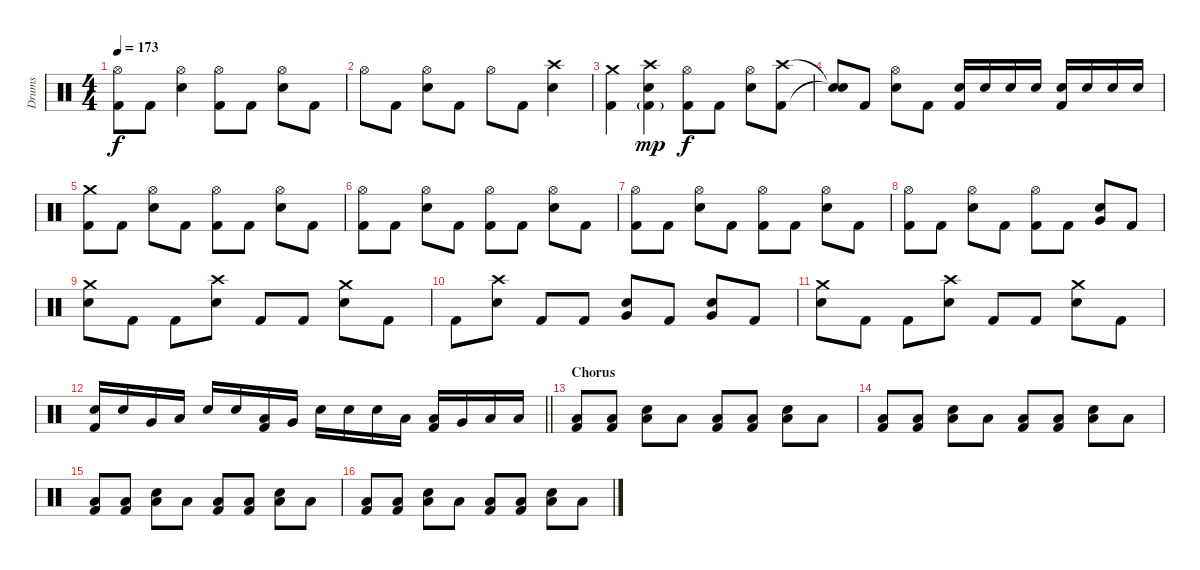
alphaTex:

\track ("Drums" "Drums") {instrument percussion}
\staff {score}
\articulation defaults
\ts (4 4)
\tempo 173
\clef neutral
\ks c
("Hi-Hat (open)" "Kick (hit) 2").8{dy f} "Kick (hit) 2".8 ("Hi-Hat (open)" "Electric Snare (hit)").4 ("Hi-Hat (open)" "Kick (hit) 2").8 "Kick (hit) 2".8 ("Hi-Hat (open)" "Electric Snare (hit)").8 "Kick (hit) 2".8 |
"Hi-Hat (open)".8 "Kick (hit) 2".8 ("Hi-Hat (open)" "Electric Snare (hit)").8 "Kick (hit) 2".8 "Hi-Hat (open)".8 "Kick (hit) 2".8 ("Crash high (hit)" "Electric Snare (hit)").4 |
("Crash medium (hit)" "Kick (hit) 2").4 ("Crash high (hit)" "Electric Snare (hit)" "Kick (hit) 2"{g}).4{dy mp} ("Hi-Hat (open)" "Kick (hit) 2").8{dy f} "Kick (hit) 2".8 ("Hi-Hat (open)" "Electric Snare (hit)").8 ("Crash high (hit)" "Kick (hit) 2").8 |
("Snare (hit)"{t} "Snare (hit)"{t}).8 "Kick (hit) 2".8 ("Hi-Hat (open)" "Electric Snare (hit)").8 "Kick (hit) 2".8 ("Electric Snare (hit)" "Kick (hit) 2").16 "Electric Snare (hit)".16 "Electric Snare (hit)".16 "Electric Snare (hit)".16 ("Electric Snare (hit)" "Kick (hit) 2").16 "Electric Snare (hit)".16 "Electric Snare (hit)".16 "Electric Snare (hit)".16 |
("Crash medium (hit)" "Kick (hit) 2").8 "Kick (hit) 2".8 ("Hi-Hat (open)" "Electric Snare (hit)").8 "Kick (hit) 2".8 ("Hi-Hat (open)" "Kick (hit) 2").8 "Kick (hit) 2".8 ("Hi-Hat (open)" "Electric Snare (hit)").8 "Kick (hit) 2".8 |
("Hi-Hat (open)" "Kick (hit) 2").8 "Kick (hit) 2".8 ("Hi-Hat (open)" "Electric Snare (hit)").8 "Kick (hit) 2".8 ("Hi-Hat (open)" "Kick (hit) 2").8 "Kick (hit) 2".8 ("Hi-Hat (open)" "Electric Snare (hit)").8 "Kick (hit) 2".8 |
("Hi-Hat (open)" "Kick (hit) 2").8 "Kick (hit) 2".8 ("Hi-Hat (open)" "Electric Snare (hit)").8 "Kick (hit) 2".8 ("Hi-Hat (open)" "Kick (hit) 2").8 "Kick (hit) 2".8 ("Hi-Hat (open)" "Electric Snare (hit)").8 "Kick (hit) 2".8 |
("Hi-Hat (open)" "Kick (hit) 2").8 "Kick (hit) 2".8 ("Hi-Hat (open)" "Electric Snare (hit)").8 "Kick (hit) 2".8 ("Hi-Hat (open)" "Kick (hit) 2").8 "Kick (hit) 2".8 ("Very Low Tom (hit)" "Electric Snare (hit)").8 "Kick (hit) 2".8 |
("Crash medium (hit)" "Electric Snare (hit)").8 "Kick (hit) 2".8 "Kick (hit) 2".8 ("Crash high (hit)" "Electric Snare (hit)").8 "Kick (hit) 2".8 "Kick (hit) 2".8 ("Crash medium (hit)" "Electric Snare (hit)").8 "Kick (hit) 2".8 |
"Kick (hit) 2".8 ("Crash high (hit)" "Electric Snare (hit)").8 "Kick (hit) 2".8 "Kick (hit) 2".8 ("Very Low Tom (hit)" "Electric Snare (hit)").8 "Kick (hit) 2".8 ("Very Low Tom (hit)" "Electric Snare (hit)").8 "Kick (hit) 2".8 |
("Crash medium (hit)" "Electric Snare (hit)").8 "Kick (hit) 2".8 "Kick (hit) 2".8 ("Crash high (hit)" "Electric Snare (hit)").8 "Kick (hit) 2".8 "Kick (hit) 2".8 ("Crash medium (hit)" "Electric Snare (hit)").8 "Kick (hit) 2".8 |
\barLineRight lightlight
("Electric Snare (hit)" "Kick (hit) 2").16 "Electric Snare (hit)".16 "Very Low Tom (hit)".16 "Low Floor Tom (hit)".16 "Electric Snare (hit)".16 "Electric Snare (hit)".16 ("Low Tom (hit)" "Kick (hit) 2").16 "Very Low Tom (hit)".16 "Electric Snare (hit)".16 "Electric Snare (hit)".16 "Electric Snare (hit)".16 "Low Tom (hit)".16 ("Low Tom (hit)" "Kick (hit) 2").16 "Very Low Tom (hit)".16 "Low Floor Tom (hit)".16 "Low Floor Tom (hit)".16 |
\section ("" "Chorus")
("Low Floor Tom (hit)" "Kick (hit) 2").8 ("Low Floor Tom (hit)" "Kick (hit) 2").8 ("Low Floor Tom (hit)" "Electric Snare (hit)").8 "Low Floor Tom (hit)".8 ("Low Floor Tom (hit)" "Kick (hit) 2").8 ("Low Floor Tom (hit)" "Kick (hit) 2").8 ("Low Floor Tom (hit)" "Electric Snare (hit)").8 "Low Floor Tom (hit)".8 |
("Low Floor Tom (hit)" "Kick (hit) 2").8 ("Low Floor Tom (hit)" "Kick (hit) 2").8 ("Low Floor Tom (hit)" "Electric Snare (hit)").8 "Low Floor Tom (hit)".8 ("Low Floor Tom (hit)" "Kick (hit) 2").8 ("Low Floor Tom (hit)" "Kick (hit) 2").8 ("Low Floor Tom (hit)" "Electric Snare (hit)").8 "Low Floor Tom (hit)".8 |
("Low Floor Tom (hit)" "Kick (hit) 2").8 ("Low Floor Tom (hit)" "Kick (hit) 2").8 ("Low Floor Tom (hit)" "Electric Snare (hit)").8 "Low Floor Tom (hit)".8 ("Low Floor Tom (hit)" "Kick (hit) 2").8 ("Low Floor Tom (hit)" "Kick (hit) 2").8 ("Low Floor Tom (hit)" "Electric Snare (hit)").8 "Low Floor Tom (hit)".8 |
("Low Floor Tom (hit)" "Kick (hit) 2").8 ("Low Floor Tom (hit)" "Kick (hit) 2").8 ("Low Floor Tom (hit)" "Electric Snare (hit)").8 "Low Floor Tom (hit)".8 ("Low Floor Tom (hit)" "Kick (hit) 2").8 ("Low Floor Tom (hit)" "Kick (hit) 2").8 ("Low Floor Tom (hit)" "Electric Snare (hit)").8 "Low Floor Tom (hit)".8
